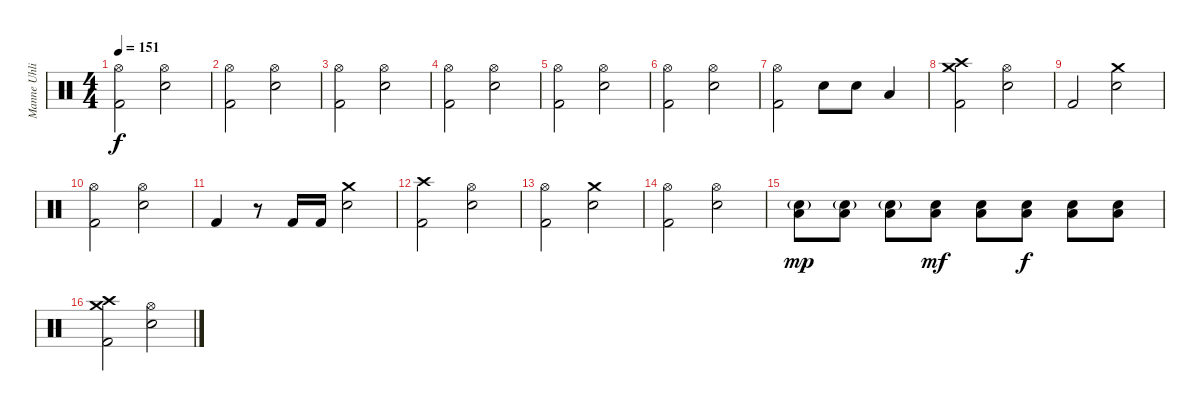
\track ("Manne Uhlig" "Manne Uhli") {instrument percussion}
\staff {score}
\articulation defaults
\ts (4 4)
\tempo 151
\clef neutral
\ks c
("Hi-Hat (open)" "Kick (hit) 2").2{dy f} ("Hi-Hat (open)" "Snare (hit) 2").2 |
("Hi-Hat (open)" "Kick (hit) 2").2 ("Hi-Hat (open)" "Snare (hit) 2").2 |
("Hi-Hat (open)" "Kick (hit) 2").2 ("Hi-Hat (open)" "Snare (hit) 2").2 |
("Hi-Hat (open)" "Kick (hit) 2").2 ("Hi-Hat (open)" "Snare (hit) 2").2 |
("Hi-Hat (open)" "Kick (hit) 2").2 ("Hi-Hat (open)" "Snare (hit) 2").2 |
("Hi-Hat (open)" "Kick (hit) 2").2 ("Hi-Hat (open)" "Snare (hit) 2").2 |
("Hi-Hat (open)" "Kick (hit) 2").2 "Snare (hit) 2".8 "Snare (hit) 2".8 "Low Tom (hit)".4 |
("Crash high (hit)" "Crash medium (hit)" "Kick (hit) 2").2 ("Hi-Hat (open)" "Snare (hit) 2").2 |
"Kick (hit) 2".2 ("Crash medium (hit)" "Snare (hit) 2").2 |
("Hi-Hat (open)" "Kick (hit) 2").2 ("Hi-Hat (open)" "Snare (hit) 2").2 |
"Kick (hit) 2".4 r.8 "Kick (hit) 2".16 "Kick (hit) 2".16 ("Crash medium (hit)" "Snare (hit) 2").2 |
("Crash high (hit)" "Kick (hit) 2").2 ("Hi-Hat (open)" "Snare (hit) 2").2 |
("Hi-Hat (open)" "Kick (hit) 2").2 ("Crash medium (hit)" "Snare (hit) 2").2 |
("Hi-Hat (open)" "Kick (hit) 2").2 ("Hi-Hat (open)" "Snare (hit) 2").2 |
("Snare (hit) 2"{g} "Low Floor Tom (hit)").8{dy mp} ("Snare (hit) 2"{g} "Low Floor Tom (hit)").8 ("Snare (hit) 2"{g} "Low Floor Tom (hit)").8 ("Snare (hit) 2" "Low Floor Tom (hit)").8{dy mf} ("Snare (hit) 2" "Low Floor Tom (hit)").8 ("Snare (hit) 2" "Low Floor Tom (hit)").8{dy f} ("Snare (hit) 2" "Low Floor Tom (hit)").8 ("Snare (hit) 2" "Low Floor Tom (hit)").8 |
("Crash high (hit)" "Crash medium (hit)" "Kick (hit) 2").2 ("Hi-Hat (open)" "Snare (hit) 2").2
